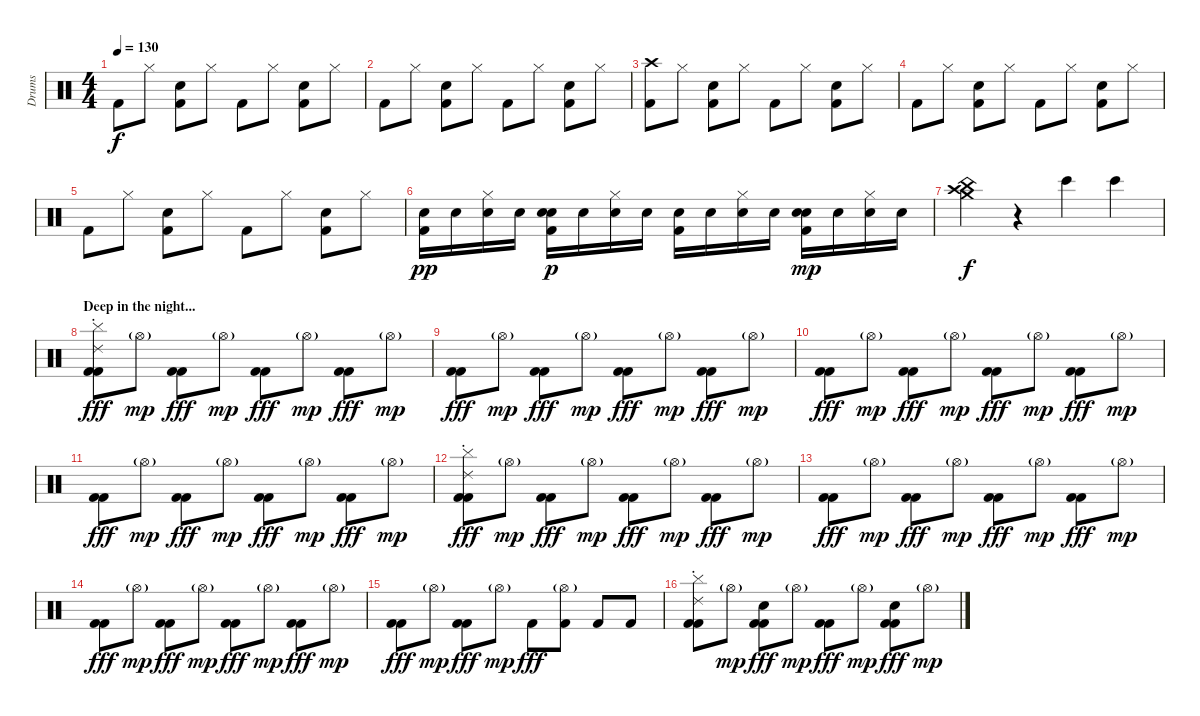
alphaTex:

\track ("Drums" "Drums") {instrument percussion}
\staff {score}
\articulation defaults
\ts (4 4)
\tempo 130
\clef neutral
\ks c "Kick (hit) 2".8{dy f} "Hi-Hat (closed)".8
("Hand Clap (hit)" "Kick (hit) 2").8 "Hi-Hat (closed)".8 "Kick (hit) 2".8 "Hi-Hat (closed)".8 ("Hand Clap (hit)" "Kick (hit) 2").8 "Hi-Hat (closed)".8 |
"Kick (hit) 2".8 "Hi-Hat (closed)".8 ("Hand Clap (hit)" "Kick (hit) 2").8 "Hi-Hat (closed)".8 "Kick (hit) 2".8 "Hi-Hat (closed)".8 ("Hand Clap (hit)" "Kick (hit) 2").8 "Hi-Hat (closed)".8 |
("Crash high (hit)" "Kick (hit) 2").8 "Hi-Hat (closed)".8 ("Hand Clap (hit)" "Kick (hit) 2").8 "Hi-Hat (closed)".8 "Kick (hit) 2".8 "Hi-Hat (closed)".8 ("Hand Clap (hit)" "Kick (hit) 2").8 "Hi-Hat (closed)".8 |
"Kick (hit) 2".8 "Hi-Hat (closed)".8 ("Hand Clap (hit)" "Kick (hit) 2").8 "Hi-Hat (closed)".8 "Kick (hit) 2".8 "Hi-Hat (closed)".8 ("Hand Clap (hit)" "Kick (hit) 2").8 "Hi-Hat (closed)".8 |
"Kick (hit) 2".8 "Hi-Hat (closed)".8 ("Hand Clap (hit)" "Kick (hit) 2").8 "Hi-Hat (closed)".8 "Kick (hit) 2".8 "Hi-Hat (closed)".8 ("Hand Clap (hit)" "Kick (hit) 2").8 "Hi-Hat (closed)".8 |
("Snare (hit) 2" "Kick (hit) 2").16{dy pp} "Snare (hit) 2".16 ("Snare (hit) 2" "Hi-Hat (closed)").16 "Snare (hit) 2".16 ("Snare (hit) 2" "Hand Clap (hit)" "Kick (hit) 2").16{dy p} "Snare (hit) 2".16 ("Snare (hit) 2" "Hi-Hat (closed)").16 "Snare (hit) 2".16 ("Snare (hit) 2" "Kick (hit) 2").16 "Snare (hit) 2".16 ("Snare (hit) 2" "Hi-Hat (closed)").16 "Snare (hit) 2".16 ("Snare (hit) 2" "Hand Clap (hit)" "Kick (hit) 2").16{dy mp} "Snare (hit) 2".16 ("Snare (hit) 2" "Hi-Hat (closed)").16 "Snare (hit) 2".16 |
("Crash high (hit)" "Crash medium (hit)" "China (hit)").4{dy f} r.4 "Bongo High (hit)".4 "Bongo High (hit)".4 |
\section ("" "Deep in the night...")
("Ride (choke) 2" "Cymbal (hit)" "Kick (hit) 2" "Kick (hit) 2").8{dy fff} "Hi-Hat (open)"{g}.8{dy mp} ("Kick (hit) 2" "Kick (hit) 2").8{dy fff} "Hi-Hat (open)"{g}.8{dy mp} ("Kick (hit) 2" "Kick (hit) 2").8{dy fff} "Hi-Hat (open)"{g}.8{dy mp} ("Kick (hit) 2" "Kick (hit) 2").8{dy fff} "Hi-Hat (open)"{g}.8{dy mp} |
("Kick (hit) 2" "Kick (hit) 2").8{dy fff} "Hi-Hat (open)"{g}.8{dy mp} ("Kick (hit) 2" "Kick (hit) 2").8{dy fff} "Hi-Hat (open)"{g}.8{dy mp} ("Kick (hit) 2" "Kick (hit) 2").8{dy fff} "Hi-Hat (open)"{g}.8{dy mp} ("Kick (hit) 2" "Kick (hit) 2").8{dy fff} "Hi-Hat (open)"{g}.8{dy mp} |
("Kick (hit) 2" "Kick (hit) 2").8{dy fff} "Hi-Hat (open)"{g}.8{dy mp} ("Kick (hit) 2" "Kick (hit) 2").8{dy fff} "Hi-Hat (open)"{g}.8{dy mp} ("Kick (hit) 2" "Kick (hit) 2").8{dy fff} "Hi-Hat (open)"{g}.8{dy mp} ("Kick (hit) 2" "Kick (hit) 2").8{dy fff} "Hi-Hat (open)"{g}.8{dy mp} |
("Kick (hit) 2" "Kick (hit) 2").8{dy fff} "Hi-Hat (open)"{g}.8{dy mp} ("Kick (hit) 2" "Kick (hit) 2").8{dy fff} "Hi-Hat (open)"{g}.8{dy mp} ("Kick (hit) 2" "Kick (hit) 2").8{dy fff} "Hi-Hat (open)"{g}.8{dy mp} ("Kick (hit) 2" "Kick (hit) 2").8{dy fff} "Hi-Hat (open)"{g}.8{dy mp} |
("Ride (choke) 2" "Cymbal (hit)" "Kick (hit) 2" "Kick (hit) 2").8{dy fff} "Hi-Hat (open)"{g}.8{dy mp} ("Kick (hit) 2" "Kick (hit) 2").8{dy fff} "Hi-Hat (open)"{g}.8{dy mp} ("Kick (hit) 2" "Kick (hit) 2").8{dy fff} "Hi-Hat (open)"{g}.8{dy mp} ("Kick (hit) 2" "Kick (hit) 2").8{dy fff} "Hi-Hat (open)"{g}.8{dy mp} |
("Kick (hit) 2" "Kick (hit) 2").8{dy fff} "Hi-Hat (open)"{g}.8{dy mp} ("Kick (hit) 2" "Kick (hit) 2").8{dy fff} "Hi-Hat (open)"{g}.8{dy mp} ("Kick (hit) 2" "Kick (hit) 2").8{dy fff} "Hi-Hat (open)"{g}.8{dy mp} ("Kick (hit) 2" "Kick (hit) 2").8{dy fff} "Hi-Hat (open)"{g}.8{dy mp} |
("Kick (hit) 2" "Kick (hit) 2").8{dy fff} "Hi-Hat (open)"{g}.8{dy mp} ("Kick (hit) 2" "Kick (hit) 2").8{dy fff} "Hi-Hat (open)"{g}.8{dy mp} ("Kick (hit) 2" "Kick (hit) 2").8{dy fff} "Hi-Hat (open)"{g}.8{dy mp} ("Kick (hit) 2" "Kick (hit) 2").8{dy fff} "Hi-Hat (open)"{g}.8{dy mp} |
("Kick (hit) 2" "Kick (hit) 2").8{dy fff} "Hi-Hat (open)"{g}.8{dy mp} ("Kick (hit) 2" "Kick (hit) 2").8{dy fff} "Hi-Hat (open)"{g}.8{dy mp} "Kick (hit) 2".8{dy fff} ("Hi-Hat (open)"{g} "Kick (hit) 2").8 "Kick (hit) 2".8 "Kick (hit) 2".8 |
("Ride (choke) 2" "Cymbal (hit)" "Kick (hit) 2" "Kick (hit) 2").8 "Hi-Hat (open)"{g}.8{dy mp} ("Hand Clap (hit)" "Kick (hit) 2" "Kick (hit) 2").8{dy fff} "Hi-Hat (open)"{g}.8{dy mp} ("Kick (hit) 2" "Kick (hit) 2").8{dy fff} "Hi-Hat (open)"{g}.8{dy mp} ("Hand Clap (hit)" "Kick (hit) 2" "Kick (hit) 2").8{dy fff} "Hi-Hat (open)"{g}.8{dy mp}
